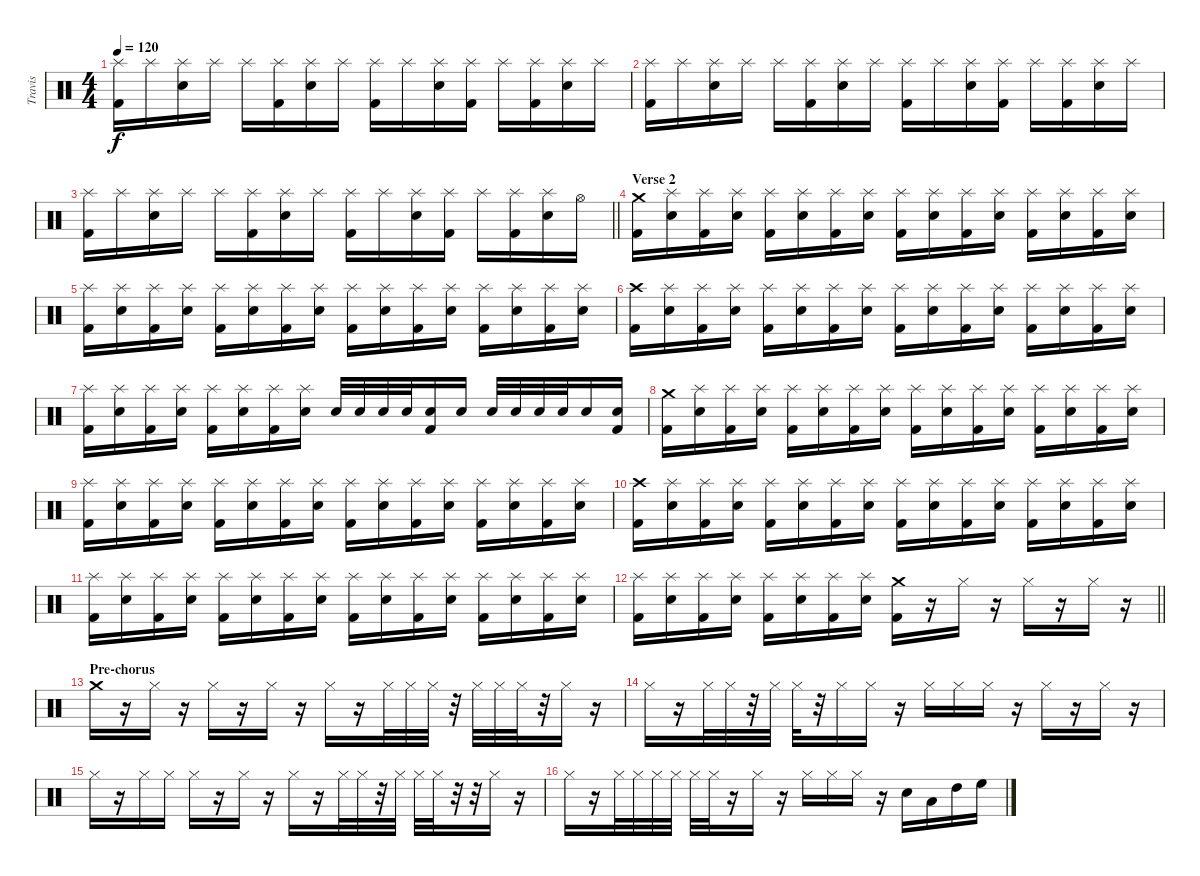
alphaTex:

\track ("Travis" "Travis") {instrument percussion}
\staff {score}
\articulation defaults
\ts (4 4)
\tempo 120
\clef neutral
\ks c
("Splash (hit)" "Kick (hit) 2").16{dy f} "Splash (hit)".16 ("Splash (hit)" "Electric Snare (hit)").16 "Splash (hit)".16 "Splash (hit)".16 ("Splash (hit)" "Kick (hit) 2").16 ("Splash (hit)" "Electric Snare (hit)").16 "Splash (hit)".16 ("Splash (hit)" "Kick (hit) 2").16 "Splash (hit)".16 ("Splash (hit)" "Electric Snare (hit)").16 ("Splash (hit)" "Kick (hit) 2").16 "Splash (hit)".16 ("Splash (hit)" "Kick (hit) 2").16 ("Splash (hit)" "Electric Snare (hit)").16 "Splash (hit)".16 |
("Splash (hit)" "Kick (hit) 2").16 "Splash (hit)".16 ("Splash (hit)" "Electric Snare (hit)").16 "Splash (hit)".16 "Splash (hit)".16 ("Splash (hit)" "Kick (hit) 2").16 ("Splash (hit)" "Electric Snare (hit)").16 "Splash (hit)".16 ("Splash (hit)" "Kick (hit) 2").16 "Splash (hit)".16 ("Splash (hit)" "Electric Snare (hit)").16 ("Splash (hit)" "Kick (hit) 2").16 "Splash (hit)".16 ("Splash (hit)" "Kick (hit) 2").16 ("Splash (hit)" "Electric Snare (hit)").16 "Splash (hit)".16 |
\barLineRight lightlight
("Splash (hit)" "Kick (hit) 2").16 "Splash (hit)".16 ("Splash (hit)" "Electric Snare (hit)").16 "Splash (hit)".16 "Splash (hit)".16 ("Splash (hit)" "Kick (hit) 2").16 ("Splash (hit)" "Electric Snare (hit)").16 "Splash (hit)".16 ("Splash (hit)" "Kick (hit) 2").16 "Splash (hit)".16 ("Splash (hit)" "Electric Snare (hit)").16 ("Splash (hit)" "Kick (hit) 2").16 "Splash (hit)".16 ("Splash (hit)" "Kick (hit) 2").16 ("Splash (hit)" "Electric Snare (hit)").16 "Hi-Hat (open)".16 |
\section ("" "Verse 2")
("Crash medium (hit)" "Kick (hit) 2").16 ("Splash (hit)" "Electric Snare (hit)").16 ("Splash (hit)" "Kick (hit) 2").16 ("Splash (hit)" "Electric Snare (hit)").16 ("Splash (hit)" "Kick (hit) 2").16 ("Splash (hit)" "Electric Snare (hit)").16 ("Splash (hit)" "Kick (hit) 2").16 ("Splash (hit)" "Electric Snare (hit)").16 ("Splash (hit)" "Kick (hit) 2").16 ("Splash (hit)" "Electric Snare (hit)").16 ("Splash (hit)" "Kick (hit) 2").16 ("Splash (hit)" "Electric Snare (hit)").16 ("Splash (hit)" "Kick (hit) 2").16 ("Splash (hit)" "Electric Snare (hit)").16 ("Splash (hit)" "Kick (hit) 2").16 ("Splash (hit)" "Electric Snare (hit)").16 |
("Splash (hit)" "Kick (hit) 2").16 ("Splash (hit)" "Electric Snare (hit)").16 ("Splash (hit)" "Kick (hit) 2").16 ("Splash (hit)" "Electric Snare (hit)").16 ("Splash (hit)" "Kick (hit) 2").16 ("Splash (hit)" "Electric Snare (hit)").16 ("Splash (hit)" "Kick (hit) 2").16 ("Splash (hit)" "Electric Snare (hit)").16 ("Splash (hit)" "Kick (hit) 2").16 ("Splash (hit)" "Electric Snare (hit)").16 ("Splash (hit)" "Kick (hit) 2").16 ("Splash (hit)" "Electric Snare (hit)").16 ("Splash (hit)" "Kick (hit) 2").16 ("Splash (hit)" "Electric Snare (hit)").16 ("Splash (hit)" "Kick (hit) 2").16 ("Splash (hit)" "Electric Snare (hit)").16 |
("Crash high (hit)" "Kick (hit) 2").16 ("Splash (hit)" "Electric Snare (hit)").16 ("Splash (hit)" "Kick (hit) 2").16 ("Splash (hit)" "Electric Snare (hit)").16 ("Splash (hit)" "Kick (hit) 2").16 ("Splash (hit)" "Electric Snare (hit)").16 ("Splash (hit)" "Kick (hit) 2").16 ("Splash (hit)" "Electric Snare (hit)").16 ("Splash (hit)" "Kick (hit) 2").16 ("Splash (hit)" "Electric Snare (hit)").16 ("Splash (hit)" "Kick (hit) 2").16 ("Splash (hit)" "Electric Snare (hit)").16 ("Splash (hit)" "Kick (hit) 2").16 ("Splash (hit)" "Electric Snare (hit)").16 ("Splash (hit)" "Kick (hit) 2").16 ("Splash (hit)" "Electric Snare (hit)").16 |
("Splash (hit)" "Kick (hit) 2").16 ("Splash (hit)" "Electric Snare (hit)").16 ("Splash (hit)" "Kick (hit) 2").16 ("Splash (hit)" "Electric Snare (hit)").16 ("Splash (hit)" "Kick (hit) 2").16 ("Splash (hit)" "Electric Snare (hit)").16 ("Splash (hit)" "Kick (hit) 2").16 ("Splash (hit)" "Electric Snare (hit)").16 "Electric Snare (hit)".32 "Electric Snare (hit)".32 "Electric Snare (hit)".32 "Electric Snare (hit)".32 ("Electric Snare (hit)" "Kick (hit) 2").16 "Electric Snare (hit)".16 "Electric Snare (hit)".32 "Electric Snare (hit)".32 "Electric Snare (hit)".32 "Electric Snare (hit)".32 "Electric Snare (hit)".16 ("Electric Snare (hit)" "Kick (hit) 2").16 |
("Crash medium (hit)" "Kick (hit) 2").16 ("Splash (hit)" "Electric Snare (hit)").16 ("Splash (hit)" "Kick (hit) 2").16 ("Splash (hit)" "Electric Snare (hit)").16 ("Splash (hit)" "Kick (hit) 2").16 ("Splash (hit)" "Electric Snare (hit)").16 ("Splash (hit)" "Kick (hit) 2").16 ("Splash (hit)" "Electric Snare (hit)").16 ("Splash (hit)" "Kick (hit) 2").16 ("Splash (hit)" "Electric Snare (hit)").16 ("Splash (hit)" "Kick (hit) 2").16 ("Splash (hit)" "Electric Snare (hit)").16 ("Splash (hit)" "Kick (hit) 2").16 ("Splash (hit)" "Electric Snare (hit)").16 ("Splash (hit)" "Kick (hit) 2").16 ("Splash (hit)" "Electric Snare (hit)").16 |
("Splash (hit)" "Kick (hit) 2").16 ("Splash (hit)" "Electric Snare (hit)").16 ("Splash (hit)" "Kick (hit) 2").16 ("Splash (hit)" "Electric Snare (hit)").16 ("Splash (hit)" "Kick (hit) 2").16 ("Splash (hit)" "Electric Snare (hit)").16 ("Splash (hit)" "Kick (hit) 2").16 ("Splash (hit)" "Electric Snare (hit)").16 ("Splash (hit)" "Kick (hit) 2").16 ("Splash (hit)" "Electric Snare (hit)").16 ("Splash (hit)" "Kick (hit) 2").16 ("Splash (hit)" "Electric Snare (hit)").16 ("Splash (hit)" "Kick (hit) 2").16 ("Splash (hit)" "Electric Snare (hit)").16 ("Splash (hit)" "Kick (hit) 2").16 ("Splash (hit)" "Electric Snare (hit)").16 |
("Crash high (hit)" "Kick (hit) 2").16 ("Splash (hit)" "Electric Snare (hit)").16 ("Splash (hit)" "Kick (hit) 2").16 ("Splash (hit)" "Electric Snare (hit)").16 ("Splash (hit)" "Kick (hit) 2").16 ("Splash (hit)" "Electric Snare (hit)").16 ("Splash (hit)" "Kick (hit) 2").16 ("Splash (hit)" "Electric Snare (hit)").16 ("Splash (hit)" "Kick (hit) 2").16 ("Splash (hit)" "Electric Snare (hit)").16 ("Splash (hit)" "Kick (hit) 2").16 ("Splash (hit)" "Electric Snare (hit)").16 ("Splash (hit)" "Kick (hit) 2").16 ("Splash (hit)" "Electric Snare (hit)").16 ("Splash (hit)" "Kick (hit) 2").16 ("Splash (hit)" "Electric Snare (hit)").16 |
("Splash (hit)" "Kick (hit) 2").16 ("Splash (hit)" "Electric Snare (hit)").16 ("Splash (hit)" "Kick (hit) 2").16 ("Splash (hit)" "Electric Snare (hit)").16 ("Splash (hit)" "Kick (hit) 2").16 ("Splash (hit)" "Electric Snare (hit)").16 ("Splash (hit)" "Kick (hit) 2").16 ("Splash (hit)" "Electric Snare (hit)").16 ("Splash (hit)" "Kick (hit) 2").16 ("Splash (hit)" "Electric Snare (hit)").16 ("Splash (hit)" "Kick (hit) 2").16 ("Splash (hit)" "Electric Snare (hit)").16 ("Splash (hit)" "Kick (hit) 2").16 ("Splash (hit)" "Electric Snare (hit)").16 ("Splash (hit)" "Kick (hit) 2").16 ("Splash (hit)" "Electric Snare (hit)").16 |
\barLineRight lightlight
("Splash (hit)" "Kick (hit) 2").16 ("Splash (hit)" "Electric Snare (hit)").16 ("Splash (hit)" "Kick (hit) 2").16 ("Splash (hit)" "Electric Snare (hit)").16 ("Splash (hit)" "Kick (hit) 2").16 ("Splash (hit)" "Electric Snare (hit)").16 ("Splash (hit)" "Kick (hit) 2").16 ("Splash (hit)" "Electric Snare (hit)").16 ("Crash medium (hit)" "Kick (hit) 2").16 r.16 "Hi-Hat (closed)".16 r.16 "Hi-Hat (closed)".16 r.16 "Hi-Hat (closed)".16 r.16 |
\section ("" "Pre-chorus")
"Crash medium (hit)".16 r.16 "Hi-Hat (closed)".16 r.16 "Hi-Hat (closed)".16 r.16 "Hi-Hat (closed)".16 r.16 "Hi-Hat (closed)".16 r.16 "Hi-Hat (closed)".32 "Hi-Hat (closed)".32 "Hi-Hat (closed)".32 r.32 "Hi-Hat (closed)".32 "Hi-Hat (closed)".32 "Hi-Hat (closed)".32 r.32 "Hi-Hat (closed)".16 r.16 |
"Hi-Hat (closed)".16 r.16 "Hi-Hat (closed)".32 "Hi-Hat (closed)".32 r.32 "Hi-Hat (closed)".32 "Hi-Hat (closed)".32 r.32 "Hi-Hat (closed)".16 "Hi-Hat (closed)".16 r.16 "Hi-Hat (closed)".16 "Hi-Hat (closed)".16 "Hi-Hat (closed)".16 r.16 "Hi-Hat (closed)".16 r.16 "Hi-Hat (closed)".16 r.16 |
"Hi-Hat (closed)".16 r.16 "Hi-Hat (closed)".16 "Hi-Hat (closed)".16 "Hi-Hat (closed)".16 r.16 "Hi-Hat (closed)".16 r.16 "Hi-Hat (closed)".16 r.16 "Hi-Hat (closed)".32 "Hi-Hat (closed)".32 r.32 "Hi-Hat (closed)".32 "Hi-Hat (closed)".32 "Hi-Hat (closed)".32 r.32 r.32 "Hi-Hat (closed)".16 r.16 |
"Hi-Hat (closed)".16 r.16 "Hi-Hat (closed)".32 "Hi-Hat (closed)".32 "Hi-Hat (closed)".32 "Hi-Hat (closed)".32 "Hi-Hat (closed)".32 "Hi-Hat (closed)".32 r.16 "Hi-Hat (closed)".16 r.16 "Hi-Hat (closed)".16 "Hi-Hat (closed)".16 "Hi-Hat (closed)".16 r.16 "Electric Snare (hit)".16 "Low Tom (hit)".16 "High Tom (hit)".16 "High Floor Tom (hit)".16
